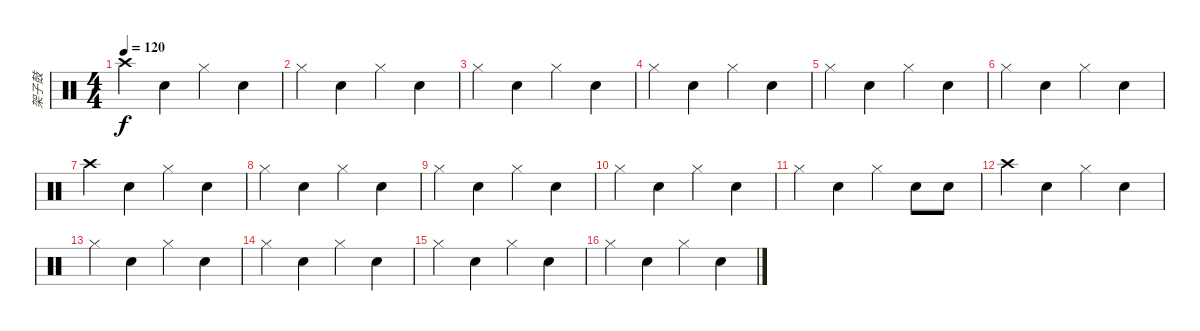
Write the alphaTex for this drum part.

\track ("架子鼓" "架子鼓") {instrument percussion}
\staff {score}
\articulation defaults
\ts (4 4)
\tempo 120
\clef neutral
\ks c "Crash high (hit)".4{dy f} "Snare (hit) 2".4 "Hi-Hat (closed)".4 "Snare (hit) 2".4
|
"Hi-Hat (closed)".4 "Snare (hit) 2".4 "Hi-Hat (closed)".4 "Snare (hit) 2".4 |
"Hi-Hat (closed)".4 "Snare (hit) 2".4 "Hi-Hat (closed)".4 "Snare (hit) 2".4 |
"Hi-Hat (closed)".4 "Snare (hit) 2".4 "Hi-Hat (closed)".4 "Snare (hit) 2".4 |
"Hi-Hat (closed)".4 "Snare (hit) 2".4 "Hi-Hat (closed)".4 "Snare (hit) 2".4 |
"Hi-Hat (closed)".4 "Snare (hit) 2".4 "Hi-Hat (closed)".4 "Snare (hit) 2".4 |
"Crash high (hit)".4 "Snare (hit) 2".4 "Hi-Hat (closed)".4 "Snare (hit) 2".4 |
"Hi-Hat (closed)".4 "Snare (hit) 2".4 "Hi-Hat (closed)".4 "Snare (hit) 2".4 |
"Hi-Hat (closed)".4 "Snare (hit) 2".4 "Hi-Hat (closed)".4 "Snare (hit) 2".4 |
"Hi-Hat (closed)".4 "Snare (hit) 2".4 "Hi-Hat (closed)".4 "Snare (hit) 2".4 |
"Hi-Hat (closed)".4 "Snare (hit) 2".4 "Hi-Hat (closed)".4 "Snare (hit) 2".8 "Snare (hit) 2".8 |
"Crash high (hit)".4 "Snare (hit) 2".4 "Hi-Hat (closed)".4 "Snare (hit) 2".4 |
"Hi-Hat (closed)".4 "Snare (hit) 2".4 "Hi-Hat (closed)".4 "Snare (hit) 2".4 |
"Hi-Hat (closed)".4 "Snare (hit) 2".4 "Hi-Hat (closed)".4 "Snare (hit) 2".4 |
"Hi-Hat (closed)".4 "Snare (hit) 2".4 "Hi-Hat (closed)".4 "Snare (hit) 2".4 |
"Hi-Hat (closed)".4 "Snare (hit) 2".4 "Hi-Hat (closed)".4 "Snare (hit) 2".4
